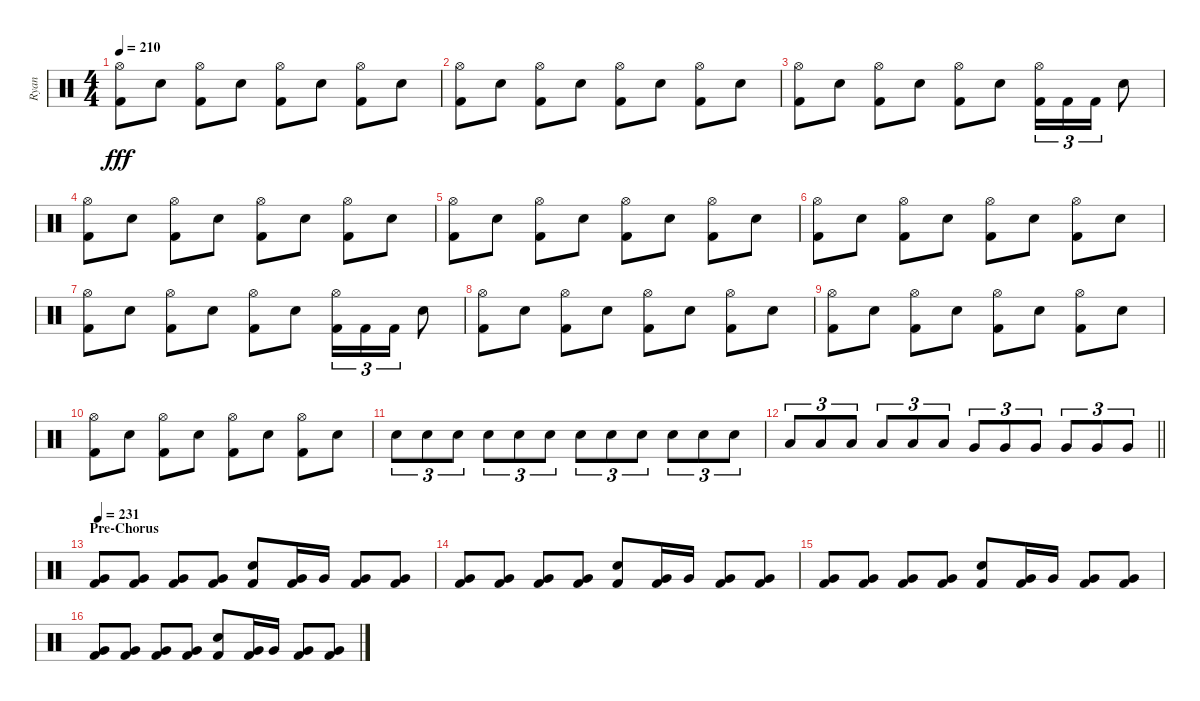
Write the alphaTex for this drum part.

\track ("Ryan" "Ryan") {instrument percussion}
\staff {score}
\articulation defaults
\ts (4 4)
\tempo 210
\clef neutral
\ks c
("Hi-Hat (open)" "Kick (hit) 2").8{dy fff} "Electric Snare (hit)".8 ("Hi-Hat (open)" "Kick (hit) 2").8 "Electric Snare (hit)".8 ("Hi-Hat (open)" "Kick (hit) 2").8 "Electric Snare (hit)".8 ("Hi-Hat (open)" "Kick (hit) 2").8 "Electric Snare (hit)".8 |
("Hi-Hat (open)" "Kick (hit) 2").8 "Electric Snare (hit)".8 ("Hi-Hat (open)" "Kick (hit) 2").8 "Electric Snare (hit)".8 ("Hi-Hat (open)" "Kick (hit) 2").8 "Electric Snare (hit)".8 ("Hi-Hat (open)" "Kick (hit) 2").8 "Electric Snare (hit)".8 |
("Hi-Hat (open)" "Kick (hit) 2").8 "Electric Snare (hit)".8 ("Hi-Hat (open)" "Kick (hit) 2").8 "Electric Snare (hit)".8 ("Hi-Hat (open)" "Kick (hit) 2").8 "Electric Snare (hit)".8 ("Hi-Hat (open)" "Kick (hit) 2").16{tu (3 2)} "Kick (hit) 2".16{tu (3 2)} "Kick (hit) 2".16{tu (3 2)} "Electric Snare (hit)".8 |
("Hi-Hat (open)" "Kick (hit) 2").8 "Electric Snare (hit)".8 ("Hi-Hat (open)" "Kick (hit) 2").8 "Electric Snare (hit)".8 ("Hi-Hat (open)" "Kick (hit) 2").8 "Electric Snare (hit)".8 ("Hi-Hat (open)" "Kick (hit) 2").8 "Electric Snare (hit)".8 |
("Hi-Hat (open)" "Kick (hit) 2").8 "Electric Snare (hit)".8 ("Hi-Hat (open)" "Kick (hit) 2").8 "Electric Snare (hit)".8 ("Hi-Hat (open)" "Kick (hit) 2").8 "Electric Snare (hit)".8 ("Hi-Hat (open)" "Kick (hit) 2").8 "Electric Snare (hit)".8 |
("Hi-Hat (open)" "Kick (hit) 2").8 "Electric Snare (hit)".8 ("Hi-Hat (open)" "Kick (hit) 2").8 "Electric Snare (hit)".8 ("Hi-Hat (open)" "Kick (hit) 2").8 "Electric Snare (hit)".8 ("Hi-Hat (open)" "Kick (hit) 2").8 "Electric Snare (hit)".8 |
("Hi-Hat (open)" "Kick (hit) 2").8 "Electric Snare (hit)".8 ("Hi-Hat (open)" "Kick (hit) 2").8 "Electric Snare (hit)".8 ("Hi-Hat (open)" "Kick (hit) 2").8 "Electric Snare (hit)".8 ("Hi-Hat (open)" "Kick (hit) 2").16{tu (3 2)} "Kick (hit) 2".16{tu (3 2)} "Kick (hit) 2".16{tu (3 2)} "Electric Snare (hit)".8 |
("Hi-Hat (open)" "Kick (hit) 2").8 "Electric Snare (hit)".8 ("Hi-Hat (open)" "Kick (hit) 2").8 "Electric Snare (hit)".8 ("Hi-Hat (open)" "Kick (hit) 2").8 "Electric Snare (hit)".8 ("Hi-Hat (open)" "Kick (hit) 2").8 "Electric Snare (hit)".8 |
("Hi-Hat (open)" "Kick (hit) 2").8 "Electric Snare (hit)".8 ("Hi-Hat (open)" "Kick (hit) 2").8 "Electric Snare (hit)".8 ("Hi-Hat (open)" "Kick (hit) 2").8 "Electric Snare (hit)".8 ("Hi-Hat (open)" "Kick (hit) 2").8 "Electric Snare (hit)".8 |
("Hi-Hat (open)" "Kick (hit) 2").8 "Electric Snare (hit)".8 ("Hi-Hat (open)" "Kick (hit) 2").8 "Electric Snare (hit)".8 ("Hi-Hat (open)" "Kick (hit) 2").8 "Electric Snare (hit)".8 ("Hi-Hat (open)" "Kick (hit) 2").8 "Electric Snare (hit)".8 |
"Electric Snare (hit)".8{tu (3 2)} "Electric Snare (hit)".8{tu (3 2)} "Electric Snare (hit)".8{tu (3 2)} "Electric Snare (hit)".8{tu (3 2)} "Electric Snare (hit)".8{tu (3 2)} "Electric Snare (hit)".8{tu (3 2)} "Electric Snare (hit)".8{tu (3 2)} "Electric Snare (hit)".8{tu (3 2)} "Electric Snare (hit)".8{tu (3 2)} "Electric Snare (hit)".8{tu (3 2)} "Electric Snare (hit)".8{tu (3 2)} "Electric Snare (hit)".8{tu (3 2)} |
\barLineRight lightlight "Low Floor Tom (hit)".8{tu (3 2)} "Low Floor Tom (hit)".8{tu (3 2)} "Low Floor Tom (hit)".8{tu (3 2)} "Low Floor Tom (hit)".8{tu (3 2)} "Low Floor Tom (hit)".8{tu (3 2)} "Low Floor Tom (hit)".8{tu (3 2)} "Very Low Tom (hit)".8{tu (3 2)} "Very Low Tom (hit)".8{tu (3 2)} "Very Low Tom (hit)".8{tu (3 2)} "Very Low Tom (hit)".8{tu (3 2)} "Very Low Tom (hit)".8{tu (3 2)} "Very Low Tom (hit)".8{tu (3 2)}
|
\section ("" "Pre-Chorus")
\tempo 231
("Very Low Tom (hit)" "Kick (hit) 2").8 ("Very Low Tom (hit)" "Kick (hit) 2").8 ("Very Low Tom (hit)" "Kick (hit) 2").8 ("Very Low Tom (hit)" "Kick (hit) 2").8 ("Electric Snare (hit)" "Kick (hit) 2").8 ("Very Low Tom (hit)" "Kick (hit) 2").16 "Very Low Tom (hit)".16 ("Very Low Tom (hit)" "Kick (hit) 2").8 ("Very Low Tom (hit)" "Kick (hit) 2").8 |
("Very Low Tom (hit)" "Kick (hit) 2").8 ("Very Low Tom (hit)" "Kick (hit) 2").8 ("Very Low Tom (hit)" "Kick (hit) 2").8 ("Very Low Tom (hit)" "Kick (hit) 2").8 ("Electric Snare (hit)" "Kick (hit) 2").8 ("Very Low Tom (hit)" "Kick (hit) 2").16 "Very Low Tom (hit)".16 ("Very Low Tom (hit)" "Kick (hit) 2").8 ("Very Low Tom (hit)" "Kick (hit) 2").8 |
("Very Low Tom (hit)" "Kick (hit) 2").8 ("Very Low Tom (hit)" "Kick (hit) 2").8 ("Very Low Tom (hit)" "Kick (hit) 2").8 ("Very Low Tom (hit)" "Kick (hit) 2").8 ("Electric Snare (hit)" "Kick (hit) 2").8 ("Very Low Tom (hit)" "Kick (hit) 2").16 "Very Low Tom (hit)".16 ("Very Low Tom (hit)" "Kick (hit) 2").8 ("Very Low Tom (hit)" "Kick (hit) 2").8 |
("Very Low Tom (hit)" "Kick (hit) 2").8 ("Very Low Tom (hit)" "Kick (hit) 2").8 ("Very Low Tom (hit)" "Kick (hit) 2").8 ("Very Low Tom (hit)" "Kick (hit) 2").8 ("Electric Snare (hit)" "Kick (hit) 2").8 ("Very Low Tom (hit)" "Kick (hit) 2").16 "Very Low Tom (hit)".16 ("Very Low Tom (hit)" "Kick (hit) 2").8 ("Very Low Tom (hit)" "Kick (hit) 2").8
